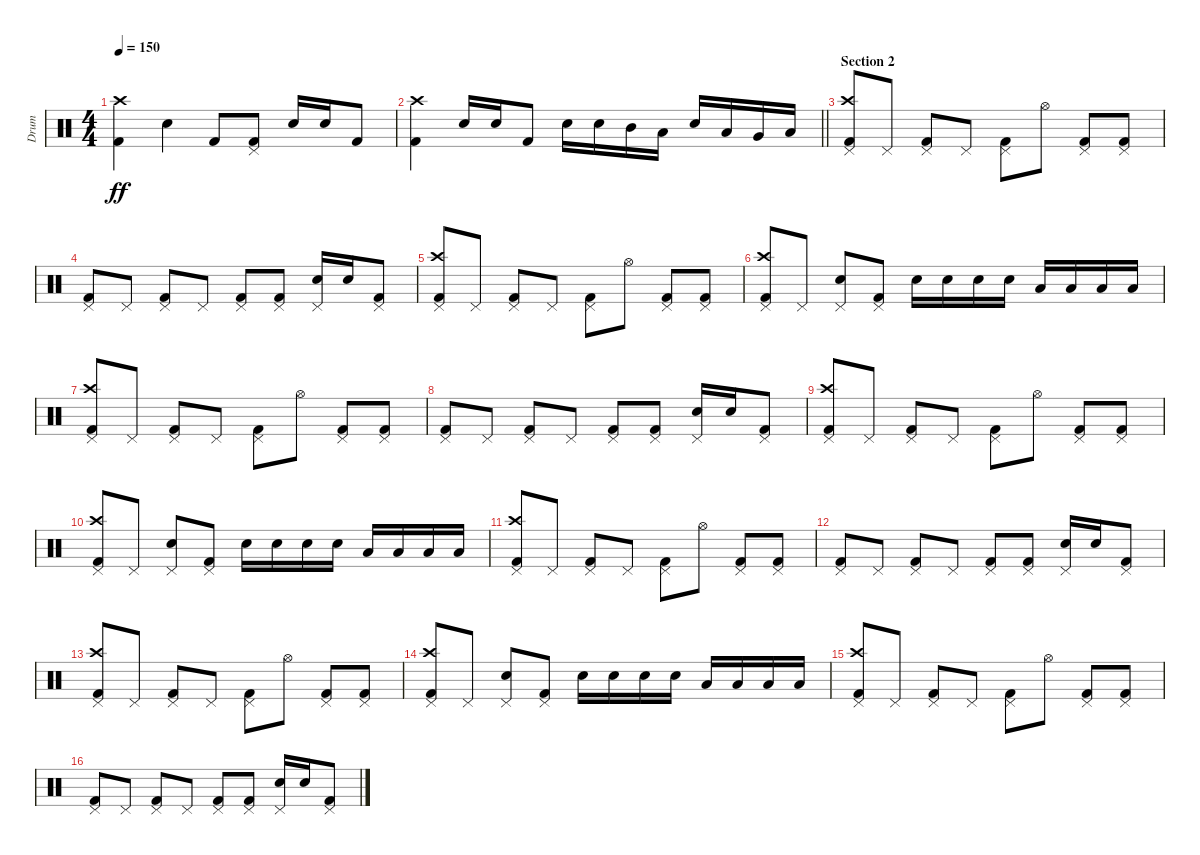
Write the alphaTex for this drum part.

\track ("Drum" "Drum") {instrument percussion}
\staff {score}
\articulation defaults
\ts (4 4)
\tempo 150
\clef neutral
\ks c
("Kick (hit) 2" "Crash high (hit)").4{dy ff} "Electric Snare (hit)".4 "Kick (hit) 2".8 ("Kick (hit) 2" "Pedal Hi-Hat (hit)").8 "Electric Snare (hit)".16 "Snare (hit) 2".16 "Kick (hit) 2".8 |
\barLineRight lightlight
("Kick (hit) 2" "Crash high (hit)").4 "Electric Snare (hit)".16 "Electric Snare (hit)".16 "Kick (hit) 2".8 "Electric Snare (hit)".16 "Electric Snare (hit)".16 "Mid Tom (hit)".16 "Low Tom (hit)".16 "Electric Snare (hit)".16 "Low Tom (hit)".16 "Very Low Tom (hit)".16 "Low Floor Tom (hit)".16 |
\section ("" "Section 2")
("Pedal Hi-Hat (hit)" "Kick (hit) 2" "Crash high (hit)").8 "Pedal Hi-Hat (hit)".8 ("Pedal Hi-Hat (hit)" "Kick (hit) 2").8 "Pedal Hi-Hat (hit)".8 ("Pedal Hi-Hat (hit)" "Kick (hit) 2").8 "Hi-Hat (open)".8 ("Pedal Hi-Hat (hit)" "Kick (hit) 2").8 ("Pedal Hi-Hat (hit)" "Kick (hit) 2").8 |
("Pedal Hi-Hat (hit)" "Kick (hit) 2").8 "Pedal Hi-Hat (hit)".8 ("Pedal Hi-Hat (hit)" "Kick (hit) 2").8 "Pedal Hi-Hat (hit)".8 ("Pedal Hi-Hat (hit)" "Kick (hit) 2").8 ("Kick (hit) 2" "Pedal Hi-Hat (hit)").8 ("Electric Snare (hit)" "Pedal Hi-Hat (hit)").16 "Electric Snare (hit)".16 ("Kick (hit) 2" "Pedal Hi-Hat (hit)").8 |
("Pedal Hi-Hat (hit)" "Kick (hit) 2" "Crash high (hit)").8 "Pedal Hi-Hat (hit)".8 ("Pedal Hi-Hat (hit)" "Kick (hit) 2").8 "Pedal Hi-Hat (hit)".8 ("Pedal Hi-Hat (hit)" "Kick (hit) 2").8 "Hi-Hat (open)".8 ("Pedal Hi-Hat (hit)" "Kick (hit) 2").8 ("Pedal Hi-Hat (hit)" "Kick (hit) 2").8 |
("Pedal Hi-Hat (hit)" "Kick (hit) 2" "Crash high (hit)").8 "Pedal Hi-Hat (hit)".8 ("Pedal Hi-Hat (hit)" "Electric Snare (hit)").8 ("Pedal Hi-Hat (hit)" "Kick (hit) 2").8 "Electric Snare (hit)".16 "Electric Snare (hit)".16 "Electric Snare (hit)".16 "Electric Snare (hit)".16 "Low Floor Tom (hit)".16 "Low Floor Tom (hit)".16 "Low Floor Tom (hit)".16 "Low Floor Tom (hit)".16 |
("Pedal Hi-Hat (hit)" "Kick (hit) 2" "Crash high (hit)").8 "Pedal Hi-Hat (hit)".8 ("Pedal Hi-Hat (hit)" "Kick (hit) 2").8 "Pedal Hi-Hat (hit)".8 ("Pedal Hi-Hat (hit)" "Kick (hit) 2").8 "Hi-Hat (open)".8 ("Pedal Hi-Hat (hit)" "Kick (hit) 2").8 ("Pedal Hi-Hat (hit)" "Kick (hit) 2").8 |
("Pedal Hi-Hat (hit)" "Kick (hit) 2").8 "Pedal Hi-Hat (hit)".8 ("Pedal Hi-Hat (hit)" "Kick (hit) 2").8 "Pedal Hi-Hat (hit)".8 ("Pedal Hi-Hat (hit)" "Kick (hit) 2").8 ("Kick (hit) 2" "Pedal Hi-Hat (hit)").8 ("Electric Snare (hit)" "Pedal Hi-Hat (hit)").16 "Electric Snare (hit)".16 ("Kick (hit) 2" "Pedal Hi-Hat (hit)").8 |
("Pedal Hi-Hat (hit)" "Kick (hit) 2" "Crash high (hit)").8 "Pedal Hi-Hat (hit)".8 ("Pedal Hi-Hat (hit)" "Kick (hit) 2").8 "Pedal Hi-Hat (hit)".8 ("Pedal Hi-Hat (hit)" "Kick (hit) 2").8 "Hi-Hat (open)".8 ("Pedal Hi-Hat (hit)" "Kick (hit) 2").8 ("Pedal Hi-Hat (hit)" "Kick (hit) 2").8 |
("Pedal Hi-Hat (hit)" "Kick (hit) 2" "Crash high (hit)").8 "Pedal Hi-Hat (hit)".8 ("Pedal Hi-Hat (hit)" "Electric Snare (hit)").8 ("Pedal Hi-Hat (hit)" "Kick (hit) 2").8 "Electric Snare (hit)".16 "Electric Snare (hit)".16 "Electric Snare (hit)".16 "Electric Snare (hit)".16 "Low Floor Tom (hit)".16 "Low Floor Tom (hit)".16 "Low Floor Tom (hit)".16 "Low Floor Tom (hit)".16 |
("Pedal Hi-Hat (hit)" "Kick (hit) 2" "Crash high (hit)").8 "Pedal Hi-Hat (hit)".8 ("Pedal Hi-Hat (hit)" "Kick (hit) 2").8 "Pedal Hi-Hat (hit)".8 ("Pedal Hi-Hat (hit)" "Kick (hit) 2").8 "Hi-Hat (open)".8 ("Pedal Hi-Hat (hit)" "Kick (hit) 2").8 ("Pedal Hi-Hat (hit)" "Kick (hit) 2").8 |
("Pedal Hi-Hat (hit)" "Kick (hit) 2").8 "Pedal Hi-Hat (hit)".8 ("Pedal Hi-Hat (hit)" "Kick (hit) 2").8 "Pedal Hi-Hat (hit)".8 ("Pedal Hi-Hat (hit)" "Kick (hit) 2").8 ("Kick (hit) 2" "Pedal Hi-Hat (hit)").8 ("Electric Snare (hit)" "Pedal Hi-Hat (hit)").16 "Electric Snare (hit)".16 ("Kick (hit) 2" "Pedal Hi-Hat (hit)").8 |
("Pedal Hi-Hat (hit)" "Kick (hit) 2" "Crash high (hit)").8 "Pedal Hi-Hat (hit)".8 ("Pedal Hi-Hat (hit)" "Kick (hit) 2").8 "Pedal Hi-Hat (hit)".8 ("Pedal Hi-Hat (hit)" "Kick (hit) 2").8 "Hi-Hat (open)".8 ("Pedal Hi-Hat (hit)" "Kick (hit) 2").8 ("Pedal Hi-Hat (hit)" "Kick (hit) 2").8 |
("Pedal Hi-Hat (hit)" "Kick (hit) 2" "Crash high (hit)").8 "Pedal Hi-Hat (hit)".8 ("Pedal Hi-Hat (hit)" "Electric Snare (hit)").8 ("Pedal Hi-Hat (hit)" "Kick (hit) 2").8 "Electric Snare (hit)".16 "Electric Snare (hit)".16 "Electric Snare (hit)".16 "Electric Snare (hit)".16 "Low Floor Tom (hit)".16 "Low Floor Tom (hit)".16 "Low Floor Tom (hit)".16 "Low Floor Tom (hit)".16 |
("Pedal Hi-Hat (hit)" "Kick (hit) 2" "Crash high (hit)").8 "Pedal Hi-Hat (hit)".8 ("Pedal Hi-Hat (hit)" "Kick (hit) 2").8 "Pedal Hi-Hat (hit)".8 ("Pedal Hi-Hat (hit)" "Kick (hit) 2").8 "Hi-Hat (open)".8 ("Pedal Hi-Hat (hit)" "Kick (hit) 2").8 ("Pedal Hi-Hat (hit)" "Kick (hit) 2").8 |
("Pedal Hi-Hat (hit)" "Kick (hit) 2").8 "Pedal Hi-Hat (hit)".8 ("Pedal Hi-Hat (hit)" "Kick (hit) 2").8 "Pedal Hi-Hat (hit)".8 ("Pedal Hi-Hat (hit)" "Kick (hit) 2").8 ("Kick (hit) 2" "Pedal Hi-Hat (hit)").8 ("Electric Snare (hit)" "Pedal Hi-Hat (hit)").16 "Electric Snare (hit)".16 ("Kick (hit) 2" "Pedal Hi-Hat (hit)").8
